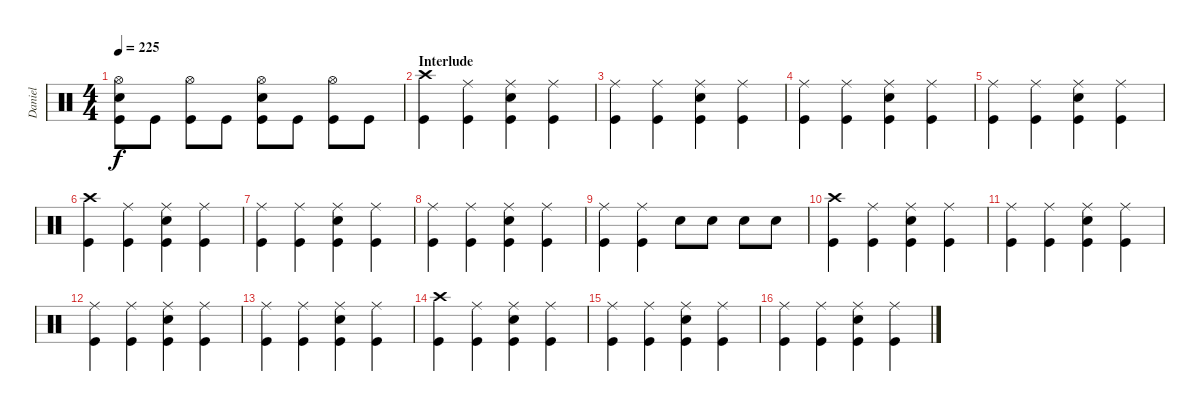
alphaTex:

\track ("Daniel" "Daniel") {instrument percussion}
\staff {score}
\articulation defaults
\ts (4 4)
\tempo 225
\clef neutral
\ks c
("Hi-Hat (open)" "Snare (hit) 2" "Kick (hit)").8{dy f} "Kick (hit)".8 ("Hi-Hat (open)" "Kick (hit)").8 "Kick (hit)".8 ("Hi-Hat (open)" "Snare (hit) 2" "Kick (hit)").8 "Kick (hit)".8 ("Hi-Hat (open)" "Kick (hit)").8 "Kick (hit)".8 |
\section ("" "Interlude")
("Crash high (hit)" "Kick (hit)").4 ("Ride (middle)" "Kick (hit)").4 ("Ride (middle)" "Snare (hit) 2" "Kick (hit)").4 ("Ride (middle)" "Kick (hit)").4 |
("Ride (middle)" "Kick (hit)").4 ("Ride (middle)" "Kick (hit)").4 ("Ride (middle)" "Snare (hit) 2" "Kick (hit)").4 ("Ride (middle)" "Kick (hit)").4 |
("Ride (middle)" "Kick (hit)").4 ("Ride (middle)" "Kick (hit)").4 ("Ride (middle)" "Snare (hit) 2" "Kick (hit)").4 ("Ride (middle)" "Kick (hit)").4 |
("Ride (middle)" "Kick (hit)").4 ("Ride (middle)" "Kick (hit)").4 ("Ride (middle)" "Snare (hit) 2" "Kick (hit)").4 ("Ride (middle)" "Kick (hit)").4 |
("Crash high (hit)" "Kick (hit)").4 ("Ride (middle)" "Kick (hit)").4 ("Ride (middle)" "Snare (hit) 2" "Kick (hit)").4 ("Ride (middle)" "Kick (hit)").4 |
("Ride (middle)" "Kick (hit)").4 ("Ride (middle)" "Kick (hit)").4 ("Ride (middle)" "Snare (hit) 2" "Kick (hit)").4 ("Ride (middle)" "Kick (hit)").4 |
("Ride (middle)" "Kick (hit)").4 ("Ride (middle)" "Kick (hit)").4 ("Ride (middle)" "Snare (hit) 2" "Kick (hit)").4 ("Ride (middle)" "Kick (hit)").4 |
("Ride (middle)" "Kick (hit)").4 ("Ride (middle)" "Kick (hit)").4 "Snare (hit) 2".8 "Snare (hit) 2".8 "Snare (hit) 2".8 "Snare (hit) 2".8 |
("Crash high (hit)" "Kick (hit)").4 ("Ride (middle)" "Kick (hit)").4 ("Ride (middle)" "Snare (hit) 2" "Kick (hit)").4 ("Ride (middle)" "Kick (hit)").4 |
("Ride (middle)" "Kick (hit)").4 ("Ride (middle)" "Kick (hit)").4 ("Ride (middle)" "Snare (hit) 2" "Kick (hit)").4 ("Ride (middle)" "Kick (hit)").4 |
("Ride (middle)" "Kick (hit)").4 ("Ride (middle)" "Kick (hit)").4 ("Ride (middle)" "Snare (hit) 2" "Kick (hit)").4 ("Ride (middle)" "Kick (hit)").4 |
("Ride (middle)" "Kick (hit)").4 ("Ride (middle)" "Kick (hit)").4 ("Ride (middle)" "Snare (hit) 2" "Kick (hit)").4 ("Ride (middle)" "Kick (hit)").4 |
("Crash high (hit)" "Kick (hit)").4 ("Ride (middle)" "Kick (hit)").4 ("Ride (middle)" "Snare (hit) 2" "Kick (hit)").4 ("Ride (middle)" "Kick (hit)").4 |
("Ride (middle)" "Kick (hit)").4 ("Ride (middle)" "Kick (hit)").4 ("Ride (middle)" "Snare (hit) 2" "Kick (hit)").4 ("Ride (middle)" "Kick (hit)").4 |
("Ride (middle)" "Kick (hit)").4 ("Ride (middle)" "Kick (hit)").4 ("Ride (middle)" "Snare (hit) 2" "Kick (hit)").4 ("Ride (middle)" "Kick (hit)").4
